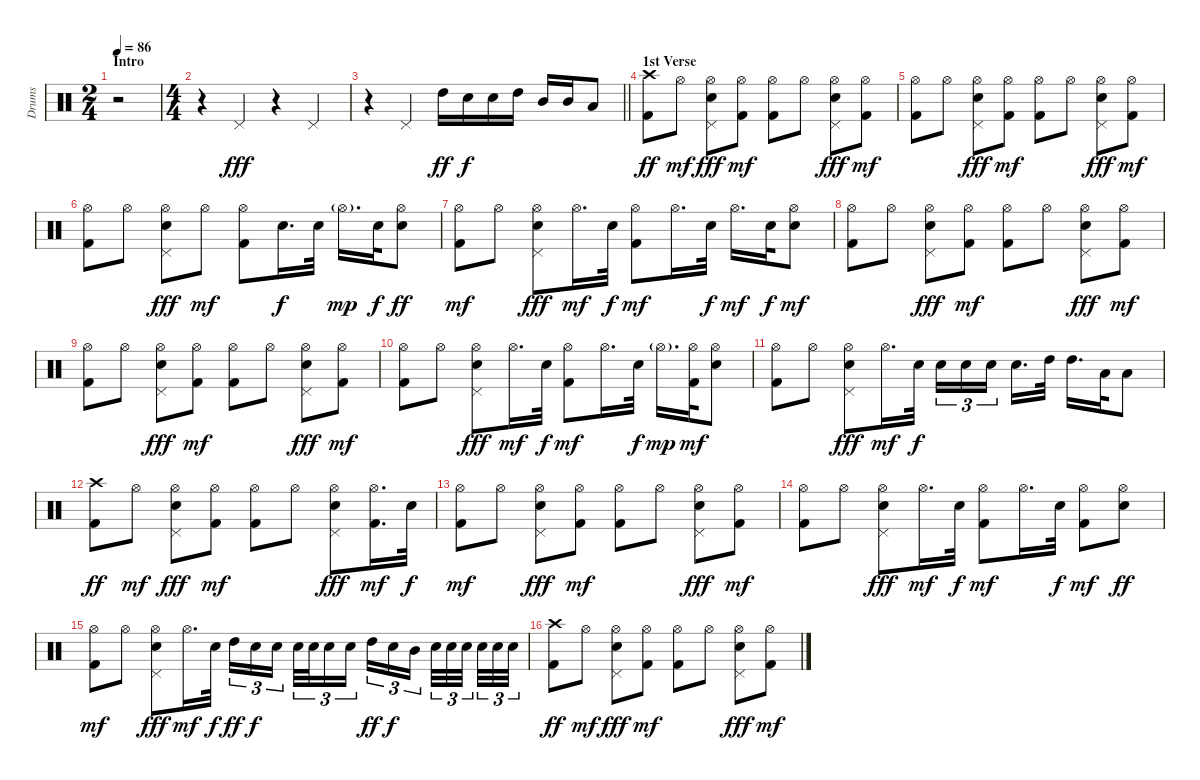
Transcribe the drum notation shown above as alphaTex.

\track ("Drums" "Drums") {instrument percussion}
\staff {score}
\articulation defaults
\ts (2 4)
\section ("" "Intro")
\tempo 86
\clef neutral
\ks c
r.2{dy fff} |
\ts (4 4)
r.4 "Pedal Hi-Hat (hit)".4 r.4 "Pedal Hi-Hat (hit)".4 |
\barLineRight lightlight
r.4 "Pedal Hi-Hat (hit)".4 "High Tom (hit)".16{dy ff} "Electric Snare (hit)".16{dy f} "Electric Snare (hit)".16 "High Tom (hit)".16 "Mid Tom (hit)".16 "Mid Tom (hit)".16 "Low Tom (hit)".8 |
\section ("" "1st Verse")
("Crash high (hit)" "Kick (hit) 2").8{dy ff} "Hi-Hat (open)".8{dy mf} ("Hi-Hat (open)" "Electric Snare (hit)" "Pedal Hi-Hat (hit)").8{dy fff} ("Hi-Hat (open)" "Kick (hit) 2").8{dy mf} ("Hi-Hat (open)" "Kick (hit) 2").8 "Hi-Hat (open)".8 ("Hi-Hat (open)" "Electric Snare (hit)" "Pedal Hi-Hat (hit)").8{dy fff} ("Hi-Hat (open)" "Kick (hit) 2").8{dy mf} |
("Hi-Hat (open)" "Kick (hit) 2").8 "Hi-Hat (open)".8 ("Hi-Hat (open)" "Electric Snare (hit)" "Pedal Hi-Hat (hit)").8{dy fff} ("Hi-Hat (open)" "Kick (hit) 2").8{dy mf} ("Hi-Hat (open)" "Kick (hit) 2").8 "Hi-Hat (open)".8 ("Hi-Hat (open)" "Electric Snare (hit)" "Pedal Hi-Hat (hit)").8{dy fff} ("Hi-Hat (open)" "Kick (hit) 2").8{dy mf} |
("Hi-Hat (open)" "Kick (hit) 2").8 "Hi-Hat (open)".8 ("Hi-Hat (open)" "Electric Snare (hit)" "Pedal Hi-Hat (hit)").8{dy fff} "Hi-Hat (open)".8{dy mf} ("Hi-Hat (open)" "Kick (hit) 2").8 "Electric Snare (hit)".16{d dy f} "Electric Snare (hit)".32 "Hi-Hat (open)"{g}.16{d dy mp} "Electric Snare (hit)".32{dy f} ("Hi-Hat (open)" "Electric Snare (hit)").8{dy ff} |
("Hi-Hat (open)" "Kick (hit) 2").8{dy mf} "Hi-Hat (open)".8 ("Hi-Hat (open)" "Electric Snare (hit)" "Pedal Hi-Hat (hit)").8{dy fff} "Hi-Hat (open)".16{d dy mf} "Electric Snare (hit)".32{dy f} ("Hi-Hat (open)" "Kick (hit) 2").8{dy mf} "Hi-Hat (open)".16{d} "Electric Snare (hit)".32{dy f} "Hi-Hat (open)".16{d dy mf} "Electric Snare (hit)".32{dy f} ("Hi-Hat (open)" "Electric Snare (hit)").8{dy mf} |
("Hi-Hat (open)" "Kick (hit) 2").8 "Hi-Hat (open)".8 ("Hi-Hat (open)" "Electric Snare (hit)" "Pedal Hi-Hat (hit)").8{dy fff} ("Hi-Hat (open)" "Kick (hit) 2").8{dy mf} ("Hi-Hat (open)" "Kick (hit) 2").8 "Hi-Hat (open)".8 ("Hi-Hat (open)" "Electric Snare (hit)" "Pedal Hi-Hat (hit)").8{dy fff} ("Hi-Hat (open)" "Kick (hit) 2").8{dy mf} |
("Hi-Hat (open)" "Kick (hit) 2").8 "Hi-Hat (open)".8 ("Hi-Hat (open)" "Electric Snare (hit)" "Pedal Hi-Hat (hit)").8{dy fff} ("Hi-Hat (open)" "Kick (hit) 2").8{dy mf} ("Hi-Hat (open)" "Kick (hit) 2").8 "Hi-Hat (open)".8 ("Hi-Hat (open)" "Electric Snare (hit)" "Pedal Hi-Hat (hit)").8{dy fff} ("Hi-Hat (open)" "Kick (hit) 2").8{dy mf} |
("Hi-Hat (open)" "Kick (hit) 2").8 "Hi-Hat (open)".8 ("Hi-Hat (open)" "Electric Snare (hit)" "Pedal Hi-Hat (hit)").8{dy fff} "Hi-Hat (open)".16{d dy mf} "Electric Snare (hit)".32{dy f} ("Hi-Hat (open)" "Kick (hit) 2").8{dy mf} "Hi-Hat (open)".16{d} "Electric Snare (hit)".32{dy f} "Hi-Hat (open)"{g}.16{d dy mp} ("Hi-Hat (open)" "Kick (hit) 2").32{dy mf} ("Hi-Hat (open)" "Electric Snare (hit)").8 |
("Hi-Hat (open)" "Kick (hit) 2").8 "Hi-Hat (open)".8 ("Hi-Hat (open)" "Electric Snare (hit)" "Pedal Hi-Hat (hit)").8{dy fff} "Hi-Hat (open)".16{d dy mf} "Electric Snare (hit)".32{dy f} "Electric Snare (hit)".16{tu (3 2)} "Electric Snare (hit)".16{tu (3 2)} "Electric Snare (hit)".16{tu (3 2)} "Electric Snare (hit)".16{d} "High Tom (hit)".32 "High Tom (hit)".16{d} "Low Tom (hit)".32 "Low Tom (hit)".8 |
("Crash high (hit)" "Kick (hit) 2").8{dy ff} "Hi-Hat (open)".8{dy mf} ("Hi-Hat (open)" "Electric Snare (hit)" "Pedal Hi-Hat (hit)").8{dy fff} ("Hi-Hat (open)" "Kick (hit) 2").8{dy mf} ("Hi-Hat (open)" "Kick (hit) 2").8 "Hi-Hat (open)".8 ("Hi-Hat (open)" "Electric Snare (hit)" "Pedal Hi-Hat (hit)").8{dy fff} ("Hi-Hat (open)" "Kick (hit) 2").16{d dy mf} "Electric Snare (hit)".32{dy f} |
("Hi-Hat (open)" "Kick (hit) 2").8{dy mf} "Hi-Hat (open)".8 ("Hi-Hat (open)" "Electric Snare (hit)" "Pedal Hi-Hat (hit)").8{dy fff} ("Hi-Hat (open)" "Kick (hit) 2").8{dy mf} ("Hi-Hat (open)" "Kick (hit) 2").8 "Hi-Hat (open)".8 ("Hi-Hat (open)" "Electric Snare (hit)" "Pedal Hi-Hat (hit)").8{dy fff} ("Hi-Hat (open)" "Kick (hit) 2").8{dy mf} |
("Hi-Hat (open)" "Kick (hit) 2").8 "Hi-Hat (open)".8 ("Hi-Hat (open)" "Electric Snare (hit)" "Pedal Hi-Hat (hit)").8{dy fff} "Hi-Hat (open)".16{d dy mf} "Electric Snare (hit)".32{dy f} ("Hi-Hat (open)" "Kick (hit) 2").8{dy mf} "Hi-Hat (open)".16{d} "Electric Snare (hit)".32{dy f} ("Hi-Hat (open)" "Kick (hit) 2").8{dy mf} ("Hi-Hat (open)" "Electric Snare (hit)").8{dy ff} |
("Hi-Hat (open)" "Kick (hit) 2").8{dy mf} "Hi-Hat (open)".8 ("Hi-Hat (open)" "Electric Snare (hit)" "Pedal Hi-Hat (hit)").8{dy fff} "Hi-Hat (open)".16{d dy mf} "Electric Snare (hit)".32{dy f} "High Tom (hit)".16{tu (3 2) dy ff} "Electric Snare (hit)".16{tu (3 2) dy f} "Electric Snare (hit)".16{tu (3 2)} "Electric Snare (hit)".32{tu (3 2)} "Electric Snare (hit)".32{tu (3 2)} "Electric Snare (hit)".16{tu (3 2)} "Electric Snare (hit)".16{tu (3 2)} "High Tom (hit)".16{tu (3 2) dy ff} "Electric Snare (hit)".16{tu (3 2) dy f} "Mid Tom (hit)".16{tu (3 2)} "Electric Snare (hit)".32{tu (3 2)} "Electric Snare (hit)".32{tu (3 2)} "Electric Snare (hit)".32{tu (3 2)} "Electric Snare (hit)".32{tu (3 2)} "Electric Snare (hit)".32{tu (3 2)} "Electric Snare (hit)".32{tu (3 2)} |
("Crash high (hit)" "Kick (hit) 2").8{dy ff} "Hi-Hat (open)".8{dy mf} ("Hi-Hat (open)" "Electric Snare (hit)" "Pedal Hi-Hat (hit)").8{dy fff} ("Hi-Hat (open)" "Kick (hit) 2").8{dy mf} ("Hi-Hat (open)" "Kick (hit) 2").8 "Hi-Hat (open)".8 ("Hi-Hat (open)" "Electric Snare (hit)" "Pedal Hi-Hat (hit)").8{dy fff} ("Hi-Hat (open)" "Kick (hit) 2").8{dy mf}
